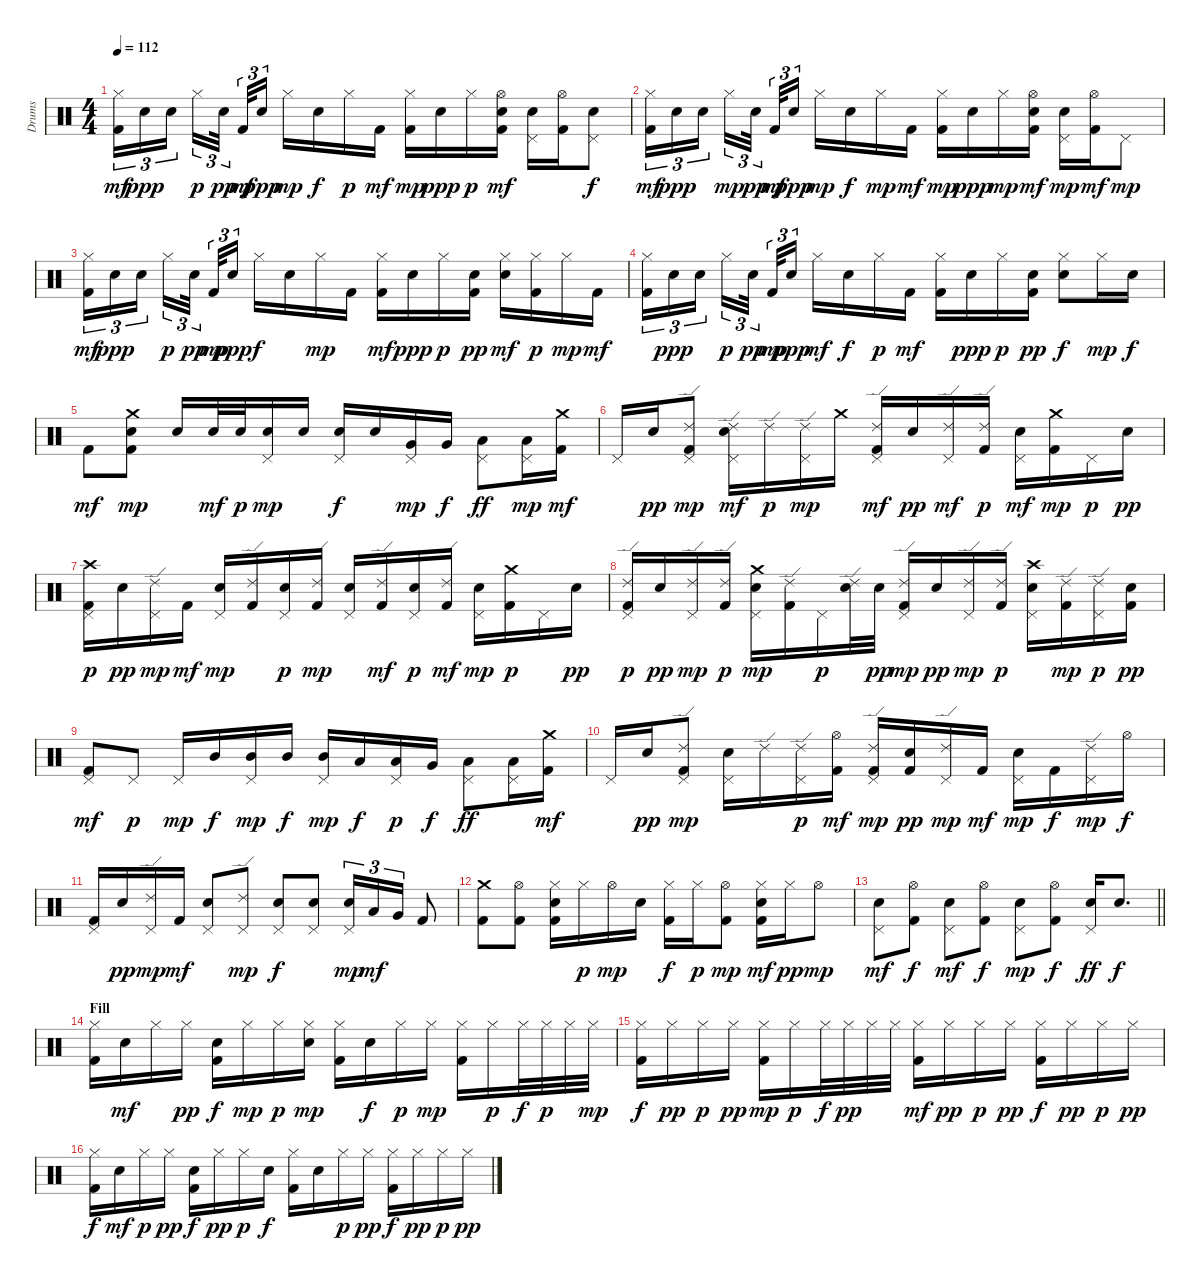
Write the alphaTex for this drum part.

\track ("Drums" "Drums") {instrument percussion}
\staff {score}
\articulation defaults
\ts (4 4)
\tempo 112
\clef neutral
\ks c
("Kick (hit) 2" "Hi-Hat (closed)").16{tu (3 2) dy mf} "Snare (hit) 2".16{tu (3 2) dy ppp} "Snare (hit) 2".16{tu (3 2) beam splitsecondary} "Hi-Hat (closed)".16{tu (3 2) dy p} "Snare (hit) 2".32{tu (3 2) dy pp beam splitsecondary} "Kick (hit) 2".32{tu (3 2) dy mf} "Snare (hit) 2".16{tu (3 2) dy ppp} "Hi-Hat (closed)".16{dy mp} "Snare (hit) 2".16{dy f} "Hi-Hat (closed)".16{dy p} "Kick (hit) 2".16{dy mf} ("Kick (hit) 2" "Hi-Hat (closed)").16{dy mp} "Snare (hit) 2".16{dy ppp} "Hi-Hat (closed)".16{dy p} ("Kick (hit) 2" "Snare (hit) 2" "Hi-Hat (open)").16{dy mf} ("Snare (hit) 2" "Pedal Hi-Hat (hit)").16 ("Kick (hit) 2" "Hi-Hat (open)").16 ("Snare (hit) 2" "Pedal Hi-Hat (hit)").8{dy f} |
("Kick (hit) 2" "Hi-Hat (closed)").16{tu (3 2) dy mf} "Snare (hit) 2".16{tu (3 2) dy ppp} "Snare (hit) 2".16{tu (3 2) beam splitsecondary} "Hi-Hat (closed)".16{tu (3 2) dy mp} "Snare (hit) 2".32{tu (3 2) dy pp beam splitsecondary} "Kick (hit) 2".32{tu (3 2) dy mf} "Snare (hit) 2".16{tu (3 2) dy ppp} "Hi-Hat (closed)".16{dy mp} "Snare (hit) 2".16{dy f} "Hi-Hat (closed)".16{dy mp} "Kick (hit) 2".16{dy mf} ("Kick (hit) 2" "Hi-Hat (closed)").16{dy mp} "Snare (hit) 2".16{dy ppp} "Hi-Hat (closed)".16{dy mp} ("Kick (hit) 2" "Snare (hit) 2" "Hi-Hat (open)").16{dy mf} ("Snare (hit) 2" "Pedal Hi-Hat (hit)").16{dy mp} ("Kick (hit) 2" "Hi-Hat (open)").16{dy mf} "Pedal Hi-Hat (hit)".8{dy mp} |
("Kick (hit) 2" "Hi-Hat (closed)").16{tu (3 2) dy mf} "Snare (hit) 2".16{tu (3 2) dy ppp} "Snare (hit) 2".16{tu (3 2) beam splitsecondary} "Hi-Hat (closed)".16{tu (3 2) dy p} "Snare (hit) 2".32{tu (3 2) dy pp beam splitsecondary} "Kick (hit) 2".32{tu (3 2) dy mp} "Snare (hit) 2".16{tu (3 2) dy ppp} "Hi-Hat (closed)".16{dy f} "Snare (hit) 2".16 "Hi-Hat (closed)".16{dy mp} "Kick (hit) 2".16 ("Kick (hit) 2" "Hi-Hat (closed)").16{dy mf} "Snare (hit) 2".16{dy ppp} "Hi-Hat (closed)".16{dy p} ("Kick (hit) 2" "Snare (hit) 2").16{dy pp} ("Snare (hit) 2" "Hi-Hat (closed)").16{dy mf} ("Kick (hit) 2" "Hi-Hat (closed)").16{dy p} "Hi-Hat (closed)".16{dy mp} "Kick (hit) 2".16{dy mf} |
("Kick (hit) 2" "Hi-Hat (closed)").16{tu (3 2)} "Snare (hit) 2".16{tu (3 2) dy ppp} "Snare (hit) 2".16{tu (3 2) beam splitsecondary} "Hi-Hat (closed)".16{tu (3 2) dy p} "Snare (hit) 2".32{tu (3 2) dy pp beam splitsecondary} "Kick (hit) 2".32{tu (3 2) dy mp} "Snare (hit) 2".16{tu (3 2) dy ppp} "Hi-Hat (closed)".16{dy mf} "Snare (hit) 2".16{dy f} "Hi-Hat (closed)".16{dy p} "Kick (hit) 2".16{dy mf} ("Kick (hit) 2" "Hi-Hat (closed)").16 "Snare (hit) 2".16{dy ppp} "Hi-Hat (closed)".16{dy p} ("Kick (hit) 2" "Snare (hit) 2").16{dy pp} ("Snare (hit) 2" "Hi-Hat (closed)").8{dy f} "Hi-Hat (closed)".16{dy mp} "Snare (hit) 2".16{dy f} |
"Kick (hit) 2".8{dy mf} ("Kick (hit) 2" "Snare (hit) 2" "Crash medium (hit)").8{dy mp} "Snare (hit) 2".16 "Snare (hit) 2".32{dy mf} "Snare (hit) 2".32{dy p} ("Snare (hit) 2" "Pedal Hi-Hat (hit)").16{dy mp} "Snare (hit) 2".16 ("Snare (hit) 2" "Pedal Hi-Hat (hit)").16{dy f} "Snare (hit) 2".16 ("Pedal Hi-Hat (hit)" "Very Low Tom (hit)").16{dy mp} "Very Low Tom (hit)".16{dy f} ("Pedal Hi-Hat (hit)" "Low Floor Tom (hit)").8{dy ff} ("Pedal Hi-Hat (hit)" "Low Floor Tom (hit)").16{dy mp} ("Kick (hit) 2" "Crash medium (hit)").16{dy mf} |
"Pedal Hi-Hat (hit)".16 "Snare (hit) 2".16{dy pp} ("Kick (hit) 2" "Pedal Hi-Hat (hit)" "Ride (edge) 2").8{dy mp} ("Snare (hit) 2" "Pedal Hi-Hat (hit)" "Ride (edge) 2").16{dy mf} "Ride (edge) 2".16{dy p} ("Pedal Hi-Hat (hit)" "Ride (edge) 2").16{dy mp} "Crash medium (hit)".16 ("Kick (hit) 2" "Pedal Hi-Hat (hit)" "Ride (edge) 2").16{dy mf} "Snare (hit) 2".16{dy pp} ("Pedal Hi-Hat (hit)" "Ride (edge) 2").16{dy mf} ("Kick (hit) 2" "Ride (edge) 2").16{dy p} ("Snare (hit) 2" "Pedal Hi-Hat (hit)").16{dy mf} ("Kick (hit) 2" "Crash medium (hit)").16{dy mp} "Pedal Hi-Hat (hit)".16{dy p} "Snare (hit) 2".16{dy pp} |
("Kick (hit) 2" "Pedal Hi-Hat (hit)" "Crash high (hit)").16{dy p} "Snare (hit) 2".16{dy pp} ("Pedal Hi-Hat (hit)" "Ride (edge) 2").16{dy mp} "Kick (hit) 2".16{dy mf} ("Snare (hit) 2" "Pedal Hi-Hat (hit)").16{dy mp} ("Kick (hit) 2" "Ride (edge) 2").16 ("Snare (hit) 2" "Pedal Hi-Hat (hit)").16{dy p} ("Kick (hit) 2" "Ride (edge) 2").16{dy mp} ("Snare (hit) 2" "Pedal Hi-Hat (hit)").16 ("Kick (hit) 2" "Ride (edge) 2").16{dy mf} ("Snare (hit) 2" "Pedal Hi-Hat (hit)").16{dy p} ("Kick (hit) 2" "Ride (edge) 2").16{dy mf} ("Snare (hit) 2" "Pedal Hi-Hat (hit)").16{dy mp} ("Kick (hit) 2" "Crash medium (hit)").16{dy p} "Pedal Hi-Hat (hit)".16 "Snare (hit) 2".16{dy pp} |
("Kick (hit) 2" "Pedal Hi-Hat (hit)" "Ride (edge) 2").16{dy p} "Snare (hit) 2".16{dy pp} ("Pedal Hi-Hat (hit)" "Ride (edge) 2").16{dy mp} ("Kick (hit) 2" "Ride (edge) 2").16{dy p} ("Snare (hit) 2" "Pedal Hi-Hat (hit)" "Crash medium (hit)").16{dy mp} ("Kick (hit) 2" "Ride (edge) 2").16 "Pedal Hi-Hat (hit)".16{dy p} ("Snare (hit) 2" "Ride (edge) 2").32 "Snare (hit) 2".32{dy pp} ("Kick (hit) 2" "Pedal Hi-Hat (hit)" "Ride (edge) 2").16{dy mp} "Snare (hit) 2".16{dy pp} ("Pedal Hi-Hat (hit)" "Ride (edge) 2").16{dy mp} ("Kick (hit) 2" "Ride (edge) 2").16{dy p} ("Snare (hit) 2" "Pedal Hi-Hat (hit)" "Crash high (hit)").16 ("Kick (hit) 2" "Ride (edge) 2").16{dy mp} ("Pedal Hi-Hat (hit)" "Ride (edge) 2").16{dy p} ("Kick (hit) 2" "Snare (hit) 2").16{dy pp} |
("Kick (hit) 2" "Pedal Hi-Hat (hit)").8{dy mf} "Pedal Hi-Hat (hit)".8{dy p} "Pedal Hi-Hat (hit)".16{dy mp} "Mid Tom (hit)".16{dy f} ("Pedal Hi-Hat (hit)" "Mid Tom (hit)").16{dy mp} "Mid Tom (hit)".16{dy f} ("Pedal Hi-Hat (hit)" "Mid Tom (hit)").16{dy mp} "Low Tom (hit)".16{dy f} ("Pedal Hi-Hat (hit)" "Low Tom (hit)").16{dy p} "Very Low Tom (hit)".16{dy f} ("Pedal Hi-Hat (hit)" "Low Floor Tom (hit)").8{dy ff} ("Pedal Hi-Hat (hit)" "Low Floor Tom (hit)").16 ("Kick (hit) 2" "Crash medium (hit)").16{dy mf} |
"Pedal Hi-Hat (hit)".16 "Snare (hit) 2".16{dy pp} ("Kick (hit) 2" "Pedal Hi-Hat (hit)" "Ride (edge) 2").8{dy mp} ("Snare (hit) 2" "Pedal Hi-Hat (hit)").16 "Ride (edge) 2".16 ("Pedal Hi-Hat (hit)" "Ride (edge) 2").16{dy p} ("Kick (hit) 2" "Hi-Hat (open)").16{dy mf} ("Kick (hit) 2" "Pedal Hi-Hat (hit)" "Ride (edge) 2").16{dy mp} ("Kick (hit) 2" "Snare (hit) 2").16{dy pp} ("Pedal Hi-Hat (hit)" "Ride (edge) 2").16{dy mp} "Kick (hit) 2".16{dy mf} ("Snare (hit) 2" "Pedal Hi-Hat (hit)").16{dy mp} "Kick (hit) 2".16{dy f} ("Pedal Hi-Hat (hit)" "Ride (edge) 2").16{dy mp} "Hi-Hat (open)".16{dy f} |
("Kick (hit) 2" "Pedal Hi-Hat (hit)").16 "Snare (hit) 2".16{dy pp} ("Pedal Hi-Hat (hit)" "Ride (edge) 2").16{dy mp} "Kick (hit) 2".16{dy mf} ("Snare (hit) 2" "Pedal Hi-Hat (hit)").8 ("Pedal Hi-Hat (hit)" "Ride (edge) 2").8{dy mp} ("Snare (hit) 2" "Pedal Hi-Hat (hit)").8{dy f} ("Snare (hit) 2" "Pedal Hi-Hat (hit)").8 ("Snare (hit) 2" "Pedal Hi-Hat (hit)").16{tu (3 2) dy mp} "Low Tom (hit)".16{tu (3 2) dy mf} "Very Low Tom (hit)".16{tu (3 2)} "Kick (hit) 2".8 |
("Kick (hit) 2" "Crash medium (hit)").8 ("Kick (hit) 2" "Hi-Hat (open)").8 ("Kick (hit) 2" "Snare (hit) 2" "Hi-Hat (closed)").16 "Hi-Hat (closed)".16{dy p} "Hi-Hat (open)".16{dy mp} "Snare (hit) 2".16 ("Kick (hit) 2" "Hi-Hat (closed)").16{dy f} "Hi-Hat (closed)".16{dy p} ("Kick (hit) 2" "Hi-Hat (open)").8{dy mp} ("Kick (hit) 2" "Snare (hit) 2" "Hi-Hat (closed)").16{dy mf} "Hi-Hat (closed)".16{dy pp} "Hi-Hat (open)".8{dy mp} |
\barLineRight lightlight
("Snare (hit) 2" "Pedal Hi-Hat (hit)").8{dy mf} ("Kick (hit) 2" "Hi-Hat (open)").8{dy f} ("Snare (hit) 2" "Pedal Hi-Hat (hit)").8{dy mf} ("Kick (hit) 2" "Hi-Hat (open)").8{dy f} ("Snare (hit) 2" "Pedal Hi-Hat (hit)").8{dy mp} ("Kick (hit) 2" "Hi-Hat (open)").8{dy f} ("Snare (hit) 2" "Pedal Hi-Hat (hit)").16{dy ff} "Snare (hit) 2".8{d dy f} |
\section ("" "Fill")
("Kick (hit) 2" "Hi-Hat (closed)").16 "Snare (hit) 2".16{dy mf} "Hi-Hat (closed)".16 "Hi-Hat (closed)".16{dy pp} ("Kick (hit) 2" "Snare (hit) 2").16{dy f} "Hi-Hat (closed)".16{dy mp} "Hi-Hat (closed)".16{dy p} ("Snare (hit) 2" "Hi-Hat (closed)").16{dy mp} ("Kick (hit) 2" "Hi-Hat (closed)").16 "Snare (hit) 2".16{dy f} "Hi-Hat (closed)".16{dy p} "Hi-Hat (closed)".16{dy mp} ("Kick (hit) 2" "Hi-Hat (closed)").16 "Hi-Hat (closed)".16{dy p} "Hi-Hat (closed)".32{dy f} "Hi-Hat (closed)".32{dy p} "Hi-Hat (closed)".32 "Hi-Hat (closed)".32{dy mp} |
("Kick (hit) 2" "Hi-Hat (closed)").16{dy f} "Hi-Hat (closed)".16{dy pp} "Hi-Hat (closed)".16{dy p} "Hi-Hat (closed)".16{dy pp} ("Kick (hit) 2" "Hi-Hat (closed)").16{dy mp} "Hi-Hat (closed)".16{dy p} "Hi-Hat (closed)".32{dy f} "Hi-Hat (closed)".32{dy pp} "Hi-Hat (closed)".32 "Hi-Hat (closed)".32 ("Kick (hit) 2" "Hi-Hat (closed)").16{dy mf} "Hi-Hat (closed)".16{dy pp} "Hi-Hat (closed)".16{dy p} "Hi-Hat (closed)".16{dy pp} ("Kick (hit) 2" "Hi-Hat (closed)").16{dy f} "Hi-Hat (closed)".16{dy pp} "Hi-Hat (closed)".16{dy p} "Hi-Hat (closed)".16{dy pp} |
("Kick (hit) 2" "Hi-Hat (closed)").16{dy f} "Snare (hit) 2".16{dy mf} "Hi-Hat (closed)".16{dy p} "Hi-Hat (closed)".16{dy pp} ("Kick (hit) 2" "Snare (hit) 2").16{dy f} "Hi-Hat (closed)".16{dy pp} "Hi-Hat (closed)".16{dy p} "Snare (hit) 2".16{dy f} ("Kick (hit) 2" "Hi-Hat (closed)").16 "Snare (hit) 2".16 "Hi-Hat (closed)".16{dy p} "Hi-Hat (closed)".16{dy pp} ("Kick (hit) 2" "Hi-Hat (closed)").16{dy f} "Hi-Hat (closed)".16{dy pp} "Hi-Hat (closed)".16{dy p} "Hi-Hat (closed)".16{dy pp}
